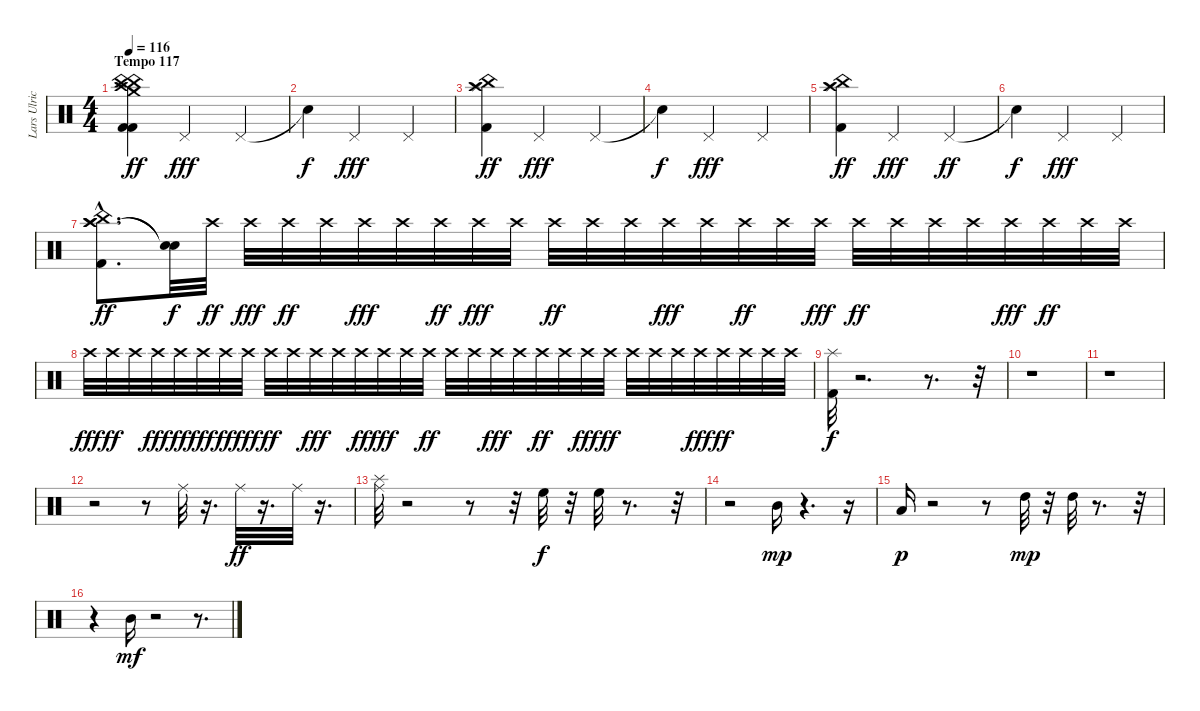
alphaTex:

\track ("Lars Ulrich" "Lars Ulric") {instrument percussion}
\staff {score}
\articulation defaults
\ts (4 4)
\section ("" "Tempo 117")
\tempo 117
\tempo 116
\clef neutral
\ks c
("Crash medium (hit)" "China (hit)" "Crash high (hit)" "Kick (hit) 2" "China (hit)" "Kick (hit) 2").4{dy ff} "Pedal Hi-Hat (hit)".2{dy fff} "Pedal Hi-Hat (hit)".4 |
"Snare (hit)"{t}.4{dy f} "Pedal Hi-Hat (hit)".2{dy fff} "Pedal Hi-Hat (hit)".4 |
("Crash high (hit)" "Kick (hit) 2" "Splash (hit)" "China (hit)").4{dy ff} "Pedal Hi-Hat (hit)".2{dy fff} "Pedal Hi-Hat (hit)".4 |
"Snare (hit)"{t}.4{dy f} "Pedal Hi-Hat (hit)".2{dy fff} "Pedal Hi-Hat (hit)".4 |
("Crash high (hit)" "Kick (hit) 2" "Splash (hit)" "China (hit)").4{dy ff} "Pedal Hi-Hat (hit)".2{dy fff} "Pedal Hi-Hat (hit)".4{dy ff} |
"Snare (hit)"{t}.4{dy f} "Pedal Hi-Hat (hit)".2{dy fff} "Pedal Hi-Hat (hit)".4 |
("Crash high (hit)" "Crash high (hit)" "Kick (hit) 2"{hac} "China (hit)"{hac}).8{d dy ff} ("Snare (hit)"{t} "Snare (hit)"{t}).32{dy f} "Crash high (hit)".32{dy ff volume 0} "Crash high (hit)".32{dy fff volume 1} "Crash high (hit)".32{dy ff volume 1} "Crash high (hit)".32{volume 1} "Crash high (hit)".32{dy fff volume 2} "Crash high (hit)".32{volume 2} "Crash high (hit)".32{dy ff volume 2} "Crash high (hit)".32{dy fff volume 2} "Crash high (hit)".32{volume 3} "Crash high (hit)".32{dy ff volume 3} "Crash high (hit)".32{volume 3} "Crash high (hit)".32{volume 4} "Crash high (hit)".32{dy fff volume 4} "Crash high (hit)".32{volume 4} "Crash high (hit)".32{dy ff volume 4} "Crash high (hit)".32{volume 5} "Crash high (hit)".32{dy fff volume 5} "Crash high (hit)".32{dy ff volume 5} "Crash high (hit)".32{volume 6} "Crash high (hit)".32{volume 6} "Crash high (hit)".32{volume 6} "Crash high (hit)".32{dy fff volume 6} "Crash high (hit)".32{dy ff volume 7} "Crash high (hit)".32{volume 7} "Crash high (hit)".32{volume 7} |
"Crash high (hit)".32{dy fff volume 8} "Crash high (hit)".32{dy ff volume 8} "Crash high (hit)".32{volume 8} "Crash high (hit)".32{dy fff volume 8} "Crash high (hit)".32{dy ff volume 9} "Crash high (hit)".32{dy fff volume 9} "Crash high (hit)".32{dy ff volume 9} "Crash high (hit)".32{dy fff volume 10} "Crash high (hit)".32{dy ff volume 10} "Crash high (hit)".32{volume 10} "Crash high (hit)".32{dy fff volume 10} "Crash high (hit)".32{volume 11} "Crash high (hit)".32{dy ff volume 11} "Crash high (hit)".32{dy fff volume 11} "Crash high (hit)".32{volume 12} "Crash high (hit)".32{dy ff volume 12} "Crash high (hit)".32{volume 12} "Crash high (hit)".32{volume 12} "Crash high (hit)".32{dy fff volume 13} "Crash high (hit)".32{volume 13} "Crash high (hit)".32{dy ff volume 13} "Crash high (hit)".32{volume 14} "Crash high (hit)".32{dy fff volume 14} "Crash high (hit)".32{dy ff volume 14} "Crash high (hit)".32{volume 14} "Crash high (hit)".32{volume 15} "Crash high (hit)".32{volume 15} "Crash high (hit)".32{dy fff volume 15} "Crash high (hit)".32{dy ff volume 15} "Crash high (hit)".32{volume 16} "Crash high (hit)".32{volume 16} "Crash high (hit)".32{volume 16} |
("Kick (hit) 2" "Splash (hit)").32{dy f} r.2{d} r.8{d} r.32 |
r.1 |
r.1 |
r.2 r.8 "Ride (middle)".32 r.16{d} "Ride (middle)".32{dy ff} r.16{d} "Ride (middle)".32 r.16{d} |
("Splash (hit)" "Ride (middle)").32 r.2 r.8 r.32 "High Floor Tom (hit)".32{dy f} r.32 "High Floor Tom (hit)".32 r.8{d} r.32 |
r.2 "Mid Tom (hit)".16{dy mp} r.4{d} r.16 |
"Low Tom (hit)".16{dy p} r.2 r.8 "High Tom (hit)".32{dy mp} r.32 "High Tom (hit)".32 r.8{d} r.32 |
r.4 "Mid Tom (hit)".16{dy mf} r.2 r.8{d}
